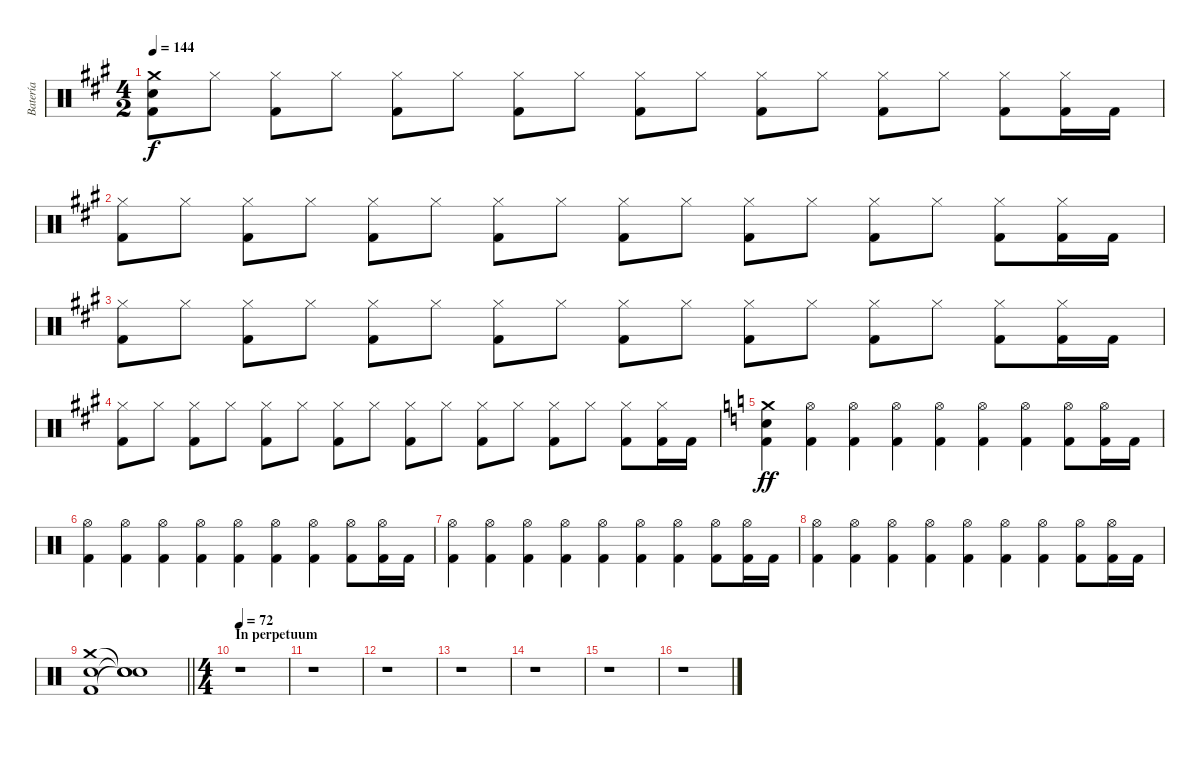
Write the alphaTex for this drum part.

\track ("Batería" "Batería") {instrument percussion}
\staff {score}
\articulation defaults
\ts (4 2)
\tempo 144
\clef neutral
\ks f#minor
("Crash medium (hit)" "Snare (hit) 2" "Kick (hit) 2").8{dy f} "Hi-Hat (closed)".8 ("Hi-Hat (closed)" "Kick (hit) 2").8 "Hi-Hat (closed)".8 ("Hi-Hat (closed)" "Kick (hit) 2").8 "Hi-Hat (closed)".8 ("Hi-Hat (closed)" "Kick (hit) 2").8 "Hi-Hat (closed)".8 ("Hi-Hat (closed)" "Kick (hit) 2").8 "Hi-Hat (closed)".8 ("Hi-Hat (closed)" "Kick (hit) 2").8 "Hi-Hat (closed)".8 ("Hi-Hat (closed)" "Kick (hit) 2").8 "Hi-Hat (closed)".8 ("Hi-Hat (closed)" "Kick (hit) 2").8 ("Hi-Hat (closed)" "Kick (hit) 2").16 "Kick (hit) 2".16 |
("Hi-Hat (closed)" "Kick (hit) 2").8 "Hi-Hat (closed)".8 ("Hi-Hat (closed)" "Kick (hit) 2").8 "Hi-Hat (closed)".8 ("Hi-Hat (closed)" "Kick (hit) 2").8 "Hi-Hat (closed)".8 ("Hi-Hat (closed)" "Kick (hit) 2").8 "Hi-Hat (closed)".8 ("Hi-Hat (closed)" "Kick (hit) 2").8 "Hi-Hat (closed)".8 ("Hi-Hat (closed)" "Kick (hit) 2").8 "Hi-Hat (closed)".8 ("Hi-Hat (closed)" "Kick (hit) 2").8 "Hi-Hat (closed)".8 ("Hi-Hat (closed)" "Kick (hit) 2").8 ("Hi-Hat (closed)" "Kick (hit) 2").16 "Kick (hit) 2".16 |
("Hi-Hat (closed)" "Kick (hit) 2").8 "Hi-Hat (closed)".8 ("Hi-Hat (closed)" "Kick (hit) 2").8 "Hi-Hat (closed)".8 ("Hi-Hat (closed)" "Kick (hit) 2").8 "Hi-Hat (closed)".8 ("Hi-Hat (closed)" "Kick (hit) 2").8 "Hi-Hat (closed)".8 ("Hi-Hat (closed)" "Kick (hit) 2").8 "Hi-Hat (closed)".8 ("Hi-Hat (closed)" "Kick (hit) 2").8 "Hi-Hat (closed)".8 ("Hi-Hat (closed)" "Kick (hit) 2").8 "Hi-Hat (closed)".8 ("Hi-Hat (closed)" "Kick (hit) 2").8 ("Hi-Hat (closed)" "Kick (hit) 2").16 "Kick (hit) 2".16 |
("Hi-Hat (closed)" "Kick (hit) 2").8 "Hi-Hat (closed)".8 ("Hi-Hat (closed)" "Kick (hit) 2").8 "Hi-Hat (closed)".8 ("Hi-Hat (closed)" "Kick (hit) 2").8 "Hi-Hat (closed)".8 ("Hi-Hat (closed)" "Kick (hit) 2").8 "Hi-Hat (closed)".8 ("Hi-Hat (closed)" "Kick (hit) 2").8 "Hi-Hat (closed)".8 ("Hi-Hat (closed)" "Kick (hit) 2").8 "Hi-Hat (closed)".8 ("Hi-Hat (closed)" "Kick (hit) 2").8 "Hi-Hat (closed)".8 ("Hi-Hat (closed)" "Kick (hit) 2").8 ("Hi-Hat (closed)" "Kick (hit) 2").16 "Kick (hit) 2".16 |
\ks aminor
("Crash medium (hit)" "Snare (hit) 2" "Kick (hit) 2").4{dy ff} ("Hi-Hat (open)" "Kick (hit) 2").4 ("Hi-Hat (open)" "Kick (hit) 2").4 ("Hi-Hat (open)" "Kick (hit) 2").4 ("Hi-Hat (open)" "Kick (hit) 2").4 ("Hi-Hat (open)" "Kick (hit) 2").4 ("Hi-Hat (open)" "Kick (hit) 2").4 ("Hi-Hat (open)" "Kick (hit) 2").8 ("Hi-Hat (open)" "Kick (hit) 2").16 "Kick (hit) 2".16 |
("Hi-Hat (open)" "Kick (hit) 2").4 ("Hi-Hat (open)" "Kick (hit) 2").4 ("Hi-Hat (open)" "Kick (hit) 2").4 ("Hi-Hat (open)" "Kick (hit) 2").4 ("Hi-Hat (open)" "Kick (hit) 2").4 ("Hi-Hat (open)" "Kick (hit) 2").4 ("Hi-Hat (open)" "Kick (hit) 2").4 ("Hi-Hat (open)" "Kick (hit) 2").8 ("Hi-Hat (open)" "Kick (hit) 2").16 "Kick (hit) 2".16 |
("Hi-Hat (open)" "Kick (hit) 2").4 ("Hi-Hat (open)" "Kick (hit) 2").4 ("Hi-Hat (open)" "Kick (hit) 2").4 ("Hi-Hat (open)" "Kick (hit) 2").4 ("Hi-Hat (open)" "Kick (hit) 2").4 ("Hi-Hat (open)" "Kick (hit) 2").4 ("Hi-Hat (open)" "Kick (hit) 2").4 ("Hi-Hat (open)" "Kick (hit) 2").8 ("Hi-Hat (open)" "Kick (hit) 2").16 "Kick (hit) 2".16 |
("Hi-Hat (open)" "Kick (hit) 2").4 ("Hi-Hat (open)" "Kick (hit) 2").4 ("Hi-Hat (open)" "Kick (hit) 2").4 ("Hi-Hat (open)" "Kick (hit) 2").4 ("Hi-Hat (open)" "Kick (hit) 2").4 ("Hi-Hat (open)" "Kick (hit) 2").4 ("Hi-Hat (open)" "Kick (hit) 2").4 ("Hi-Hat (open)" "Kick (hit) 2").8 ("Hi-Hat (open)" "Kick (hit) 2").16 "Kick (hit) 2".16 |
\barLineRight lightlight
("Crash medium (hit)" "Snare (hit) 2" "Kick (hit) 2").1 ("Snare (hit)"{t} "Snare (hit)"{t} "Snare (hit)"{t}).1 |
\ts (4 4)
\section ("" "In perpetuum")
\tempo 72
r.1 |
r.1 |
r.1 |
r.1 |
r.1 |
r.1 |
r.1
